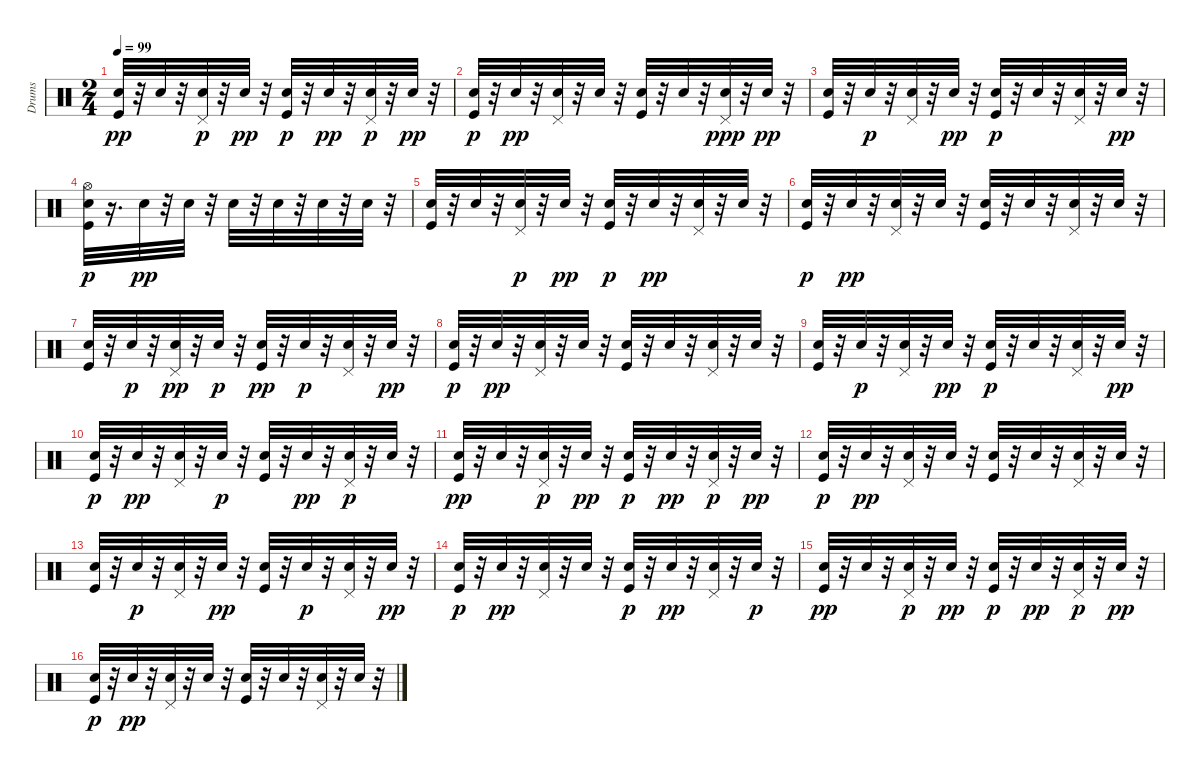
\track ("Drums" "Drums") {instrument percussion}
\staff {score}
\articulation defaults
\ts (2 4)
\tempo 99
\clef neutral
\ks c
("Kick (hit)" "Hand Clap (hit)").32{dy pp} r.32 "Snare (hit) 2".32 r.32 ("Pedal Hi-Hat (hit)" "Snare (hit) 2").32{dy p} r.32 "Snare (hit) 2".32{dy pp} r.32 ("Hand Clap (hit)" "Kick (hit)").32{dy p} r.32 "Snare (hit) 2".32{dy pp} r.32 ("Pedal Hi-Hat (hit)" "Snare (hit) 2").32{dy p} r.32 "Snare (hit) 2".32{dy pp} r.32 |
("Hand Clap (hit)" "Kick (hit)").32{dy p} r.32 "Snare (hit) 2".32{dy pp} r.32 ("Pedal Hi-Hat (hit)" "Snare (hit) 2").32 r.32 "Hand Clap (hit)".32 r.32 ("Kick (hit)" "Hand Clap (hit)").32 r.32 "Snare (hit) 2".32 r.32 ("Hand Clap (hit)" "Pedal Hi-Hat (hit)").32{dy ppp} r.32 "Snare (hit) 2".32{dy pp} r.32 |
("Kick (hit)" "Hand Clap (hit)").32 r.32 "Snare (hit) 2".32{dy p} r.32 ("Pedal Hi-Hat (hit)" "Snare (hit) 2").32 r.32 "Snare (hit) 2".32{dy pp} r.32 ("Hand Clap (hit)" "Kick (hit)").32{dy p} r.32 "Snare (hit) 2".32 r.32 ("Pedal Hi-Hat (hit)" "Snare (hit) 2").32 r.32 "Snare (hit) 2".32{dy pp} r.32 |
("Hand Clap (hit)" "Hi-Hat (open)" "Kick (hit)").32{dy p} r.16{d} "Snare (hit) 2".32{dy pp} r.32 "Hand Clap (hit)".32 r.32 "Hand Clap (hit)".32 r.32 "Snare (hit) 2".32 r.32 "Hand Clap (hit)".32 r.32 "Hand Clap (hit)".32 r.32 |
("Kick (hit)" "Hand Clap (hit)").32 r.32 "Snare (hit) 2".32 r.32 ("Pedal Hi-Hat (hit)" "Snare (hit) 2").32{dy p} r.32 "Hand Clap (hit)".32{dy pp} r.32 ("Hand Clap (hit)" "Kick (hit)").32{dy p} r.32 "Snare (hit) 2".32{dy pp} r.32 ("Pedal Hi-Hat (hit)" "Hand Clap (hit)").32 r.32 "Snare (hit) 2".32 r.32 |
("Hand Clap (hit)" "Kick (hit)").32{dy p} r.32 "Snare (hit) 2".32{dy pp} r.32 ("Pedal Hi-Hat (hit)" "Snare (hit) 2").32 r.32 "Snare (hit) 2".32 r.32 ("Kick (hit)" "Hand Clap (hit)").32 r.32 "Snare (hit) 2".32 r.32 ("Hand Clap (hit)" "Pedal Hi-Hat (hit)").32 r.32 "Snare (hit) 2".32 r.32 |
("Kick (hit)" "Hand Clap (hit)").32 r.32 "Snare (hit) 2".32{dy p} r.32 ("Pedal Hi-Hat (hit)" "Snare (hit) 2").32{dy pp} r.32 "Hand Clap (hit)".32{dy p} r.32 ("Kick (hit)" "Snare (hit) 2").32{dy pp} r.32 "Snare (hit) 2".32{dy p} r.32 ("Pedal Hi-Hat (hit)" "Snare (hit) 2").32 r.32 "Snare (hit) 2".32{dy pp} r.32 |
("Hand Clap (hit)" "Kick (hit)").32{dy p} r.32 "Snare (hit) 2".32{dy pp} r.32 ("Pedal Hi-Hat (hit)" "Snare (hit) 2").32 r.32 "Hand Clap (hit)".32 r.32 ("Kick (hit)" "Hand Clap (hit)").32 r.32 "Snare (hit) 2".32 r.32 ("Pedal Hi-Hat (hit)" "Hand Clap (hit)").32 r.32 "Hand Clap (hit)".32 r.32 |
("Kick (hit)" "Hand Clap (hit)").32 r.32 "Snare (hit) 2".32{dy p} r.32 ("Pedal Hi-Hat (hit)" "Snare (hit) 2").32 r.32 "Snare (hit) 2".32{dy pp} r.32 ("Hand Clap (hit)" "Kick (hit)").32{dy p} r.32 "Snare (hit) 2".32 r.32 ("Pedal Hi-Hat (hit)" "Snare (hit) 2").32 r.32 "Hand Clap (hit)".32{dy pp} r.32 |
("Hand Clap (hit)" "Kick (hit)").32{dy p} r.32 "Snare (hit) 2".32{dy pp} r.32 ("Pedal Hi-Hat (hit)" "Snare (hit) 2").32 r.32 "Snare (hit) 2".32{dy p} r.32 ("Hand Clap (hit)" "Kick (hit)").32 r.32 "Hand Clap (hit)".32{dy pp} r.32 ("Pedal Hi-Hat (hit)" "Snare (hit) 2").32{dy p} r.32 "Snare (hit) 2".32 r.32 |
("Kick (hit)" "Hand Clap (hit)").32{dy pp} r.32 "Snare (hit) 2".32 r.32 ("Pedal Hi-Hat (hit)" "Snare (hit) 2").32{dy p} r.32 "Snare (hit) 2".32{dy pp} r.32 ("Hand Clap (hit)" "Kick (hit)").32{dy p} r.32 "Snare (hit) 2".32{dy pp} r.32 ("Pedal Hi-Hat (hit)" "Snare (hit) 2").32{dy p} r.32 "Snare (hit) 2".32{dy pp} r.32 |
("Hand Clap (hit)" "Kick (hit)").32{dy p} r.32 "Snare (hit) 2".32{dy pp} r.32 ("Pedal Hi-Hat (hit)" "Snare (hit) 2").32 r.32 "Hand Clap (hit)".32 r.32 ("Kick (hit)" "Hand Clap (hit)").32 r.32 "Snare (hit) 2".32 r.32 ("Hand Clap (hit)" "Pedal Hi-Hat (hit)").32 r.32 "Hand Clap (hit)".32 r.32 |
("Kick (hit)" "Hand Clap (hit)").32 r.32 "Snare (hit) 2".32{dy p} r.32 ("Pedal Hi-Hat (hit)" "Snare (hit) 2").32 r.32 "Hand Clap (hit)".32{dy pp} r.32 ("Kick (hit)" "Snare (hit) 2").32 r.32 "Snare (hit) 2".32{dy p} r.32 ("Pedal Hi-Hat (hit)" "Snare (hit) 2").32 r.32 "Hand Clap (hit)".32{dy pp} r.32 |
("Hand Clap (hit)" "Kick (hit)").32{dy p} r.32 "Snare (hit) 2".32{dy pp} r.32 ("Pedal Hi-Hat (hit)" "Snare (hit) 2").32 r.32 "Hand Clap (hit)".32 r.32 ("Hand Clap (hit)" "Kick (hit)").32{dy p} r.32 "Snare (hit) 2".32{dy pp} r.32 ("Pedal Hi-Hat (hit)" "Hand Clap (hit)").32 r.32 "Snare (hit) 2".32{dy p} r.32 |
("Kick (hit)" "Hand Clap (hit)").32{dy pp} r.32 "Snare (hit) 2".32 r.32 ("Pedal Hi-Hat (hit)" "Snare (hit) 2").32{dy p} r.32 "Snare (hit) 2".32{dy pp} r.32 ("Hand Clap (hit)" "Kick (hit)").32{dy p} r.32 "Snare (hit) 2".32{dy pp} r.32 ("Pedal Hi-Hat (hit)" "Snare (hit) 2").32{dy p} r.32 "Snare (hit) 2".32{dy pp} r.32 |
("Hand Clap (hit)" "Kick (hit)").32{dy p} r.32 "Snare (hit) 2".32{dy pp} r.32 ("Pedal Hi-Hat (hit)" "Snare (hit) 2").32 r.32 "Hand Clap (hit)".32 r.32 ("Kick (hit)" "Hand Clap (hit)").32 r.32 "Snare (hit) 2".32 r.32 ("Hand Clap (hit)" "Pedal Hi-Hat (hit)").32 r.32 "Snare (hit) 2".32 r.32
